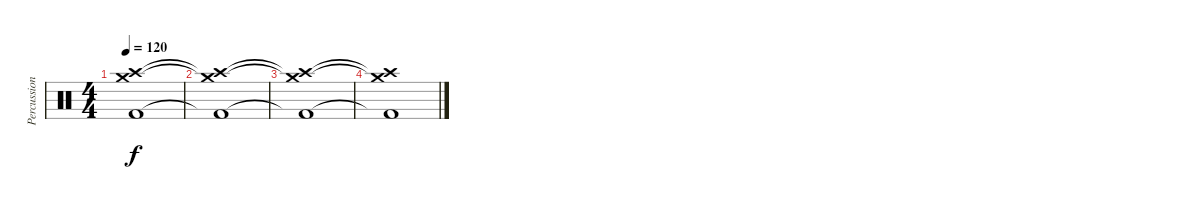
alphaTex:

\track ("Percussion" "Percussion") {instrument percussion}
\staff {score}
\articulation defaults
\ts (4 4)
\tempo 120
\clef neutral
\ks c
("Crash high (hit)"{t} "Crash medium (hit)"{t} "Kick (hit) 2"{t}).1{dy f} |
("Crash high (hit)"{t} "Crash medium (hit)"{t} "Kick (hit) 2"{t}).1 |
("Crash high (hit)"{t} "Crash medium (hit)"{t} "Kick (hit) 2"{t}).1 |
("Crash high (hit)"{t} "Crash medium (hit)"{t} "Kick (hit) 2"{t}).1
